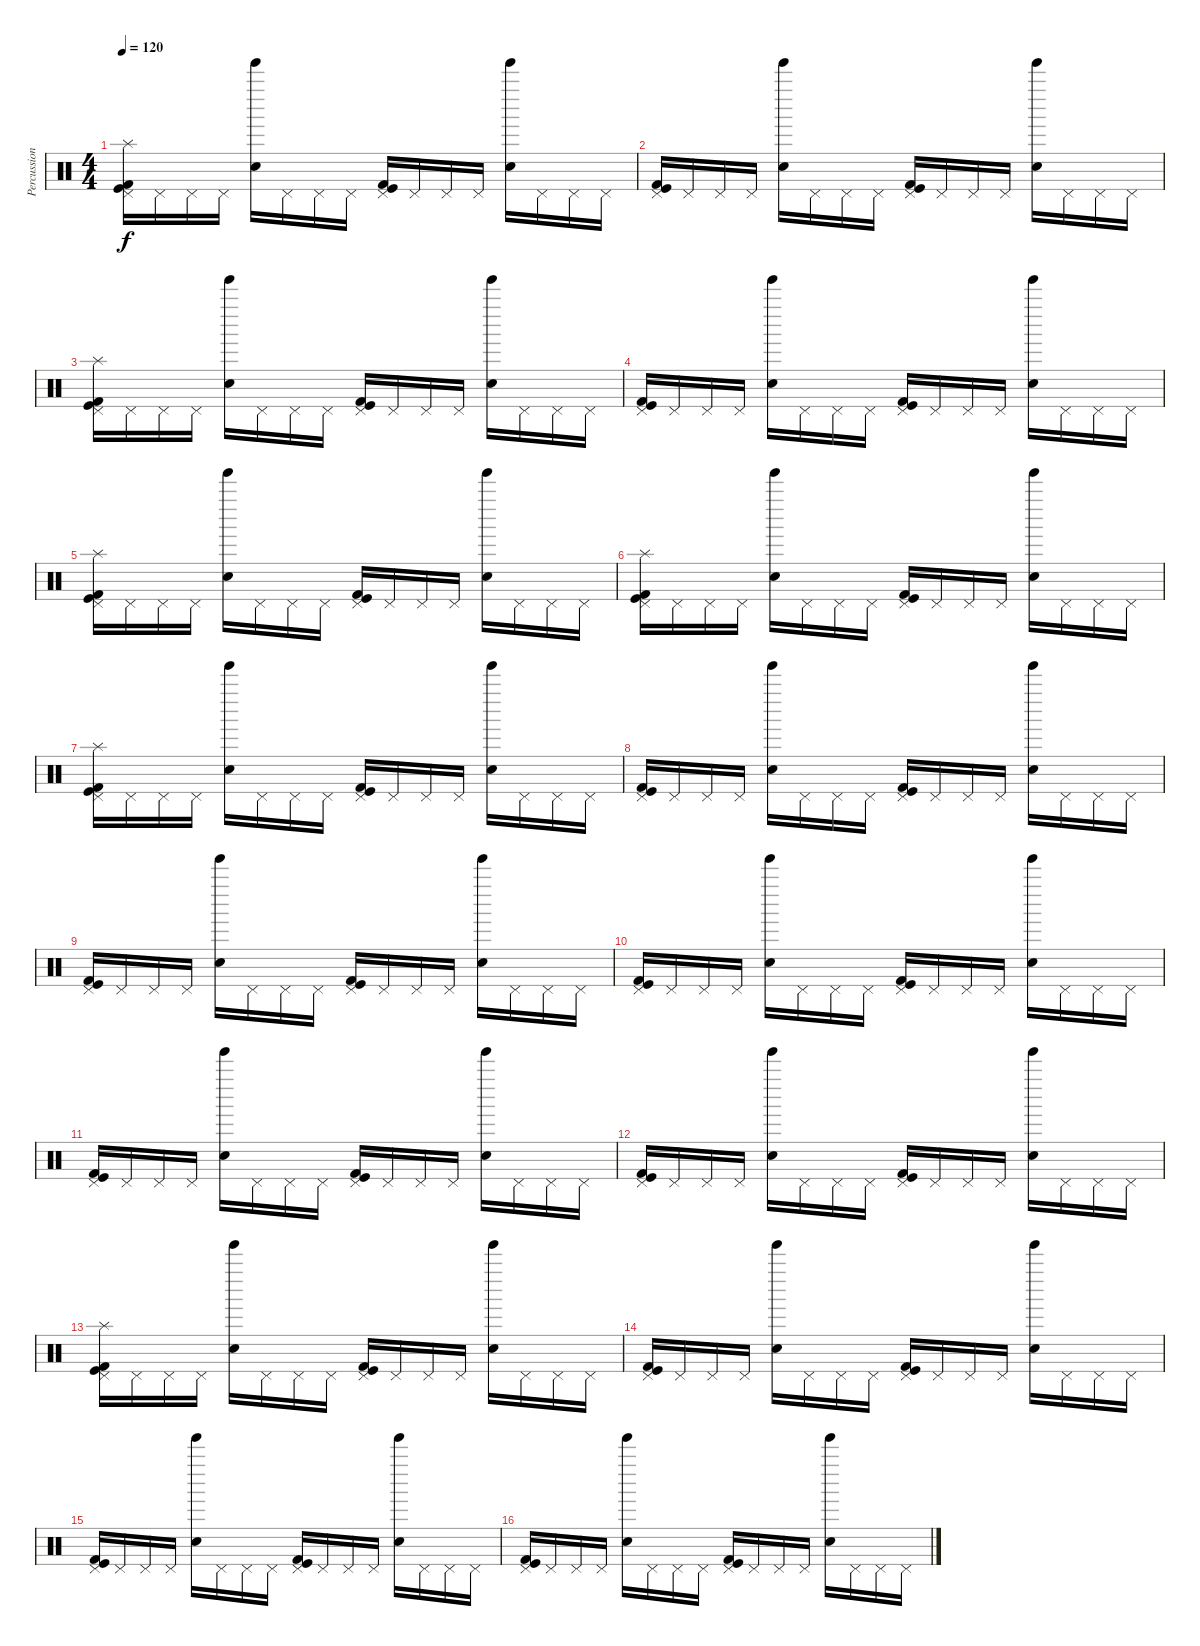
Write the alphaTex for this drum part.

\track ("Percussion" "Percussion") {instrument percussion}
\staff {score}
\articulation defaults
\ts (4 4)
\tempo 120
\clef neutral
\ks c
("Splash (hit)" "Pedal Hi-Hat (hit)" "Kick (hit)" "Kick (hit) 2").16{dy f} "Pedal Hi-Hat (hit)".16 "Pedal Hi-Hat (hit)".16 "Pedal Hi-Hat (hit)".16 ("Tinkle Bell (hit)" "Snare (hit) 2").16 "Pedal Hi-Hat (hit)".16 "Pedal Hi-Hat (hit)".16 "Pedal Hi-Hat (hit)".16 ("Pedal Hi-Hat (hit)" "Kick (hit)" "Kick (hit) 2").16 "Pedal Hi-Hat (hit)".16 "Pedal Hi-Hat (hit)".16 "Pedal Hi-Hat (hit)".16 ("Tinkle Bell (hit)" "Snare (hit) 2").16 "Pedal Hi-Hat (hit)".16 "Pedal Hi-Hat (hit)".16 "Pedal Hi-Hat (hit)".16 |
("Pedal Hi-Hat (hit)" "Kick (hit)" "Kick (hit) 2").16 "Pedal Hi-Hat (hit)".16 "Pedal Hi-Hat (hit)".16 "Pedal Hi-Hat (hit)".16 ("Tinkle Bell (hit)" "Snare (hit) 2").16 "Pedal Hi-Hat (hit)".16 "Pedal Hi-Hat (hit)".16 "Pedal Hi-Hat (hit)".16 ("Pedal Hi-Hat (hit)" "Kick (hit)" "Kick (hit) 2").16 "Pedal Hi-Hat (hit)".16 "Pedal Hi-Hat (hit)".16 "Pedal Hi-Hat (hit)".16 ("Tinkle Bell (hit)" "Snare (hit) 2").16 "Pedal Hi-Hat (hit)".16 "Pedal Hi-Hat (hit)".16 "Pedal Hi-Hat (hit)".16 |
("Splash (hit)" "Pedal Hi-Hat (hit)" "Kick (hit)" "Kick (hit) 2").16 "Pedal Hi-Hat (hit)".16 "Pedal Hi-Hat (hit)".16 "Pedal Hi-Hat (hit)".16 ("Tinkle Bell (hit)" "Snare (hit) 2").16 "Pedal Hi-Hat (hit)".16 "Pedal Hi-Hat (hit)".16 "Pedal Hi-Hat (hit)".16 ("Pedal Hi-Hat (hit)" "Kick (hit)" "Kick (hit) 2").16 "Pedal Hi-Hat (hit)".16 "Pedal Hi-Hat (hit)".16 "Pedal Hi-Hat (hit)".16 ("Tinkle Bell (hit)" "Snare (hit) 2").16 "Pedal Hi-Hat (hit)".16 "Pedal Hi-Hat (hit)".16 "Pedal Hi-Hat (hit)".16 |
("Pedal Hi-Hat (hit)" "Kick (hit)" "Kick (hit) 2").16 "Pedal Hi-Hat (hit)".16 "Pedal Hi-Hat (hit)".16 "Pedal Hi-Hat (hit)".16 ("Tinkle Bell (hit)" "Snare (hit) 2").16 "Pedal Hi-Hat (hit)".16 "Pedal Hi-Hat (hit)".16 "Pedal Hi-Hat (hit)".16 ("Pedal Hi-Hat (hit)" "Kick (hit)" "Kick (hit) 2").16 "Pedal Hi-Hat (hit)".16 "Pedal Hi-Hat (hit)".16 "Pedal Hi-Hat (hit)".16 ("Tinkle Bell (hit)" "Snare (hit) 2").16 "Pedal Hi-Hat (hit)".16 "Pedal Hi-Hat (hit)".16 "Pedal Hi-Hat (hit)".16 |
("Splash (hit)" "Pedal Hi-Hat (hit)" "Kick (hit)" "Kick (hit) 2").16 "Pedal Hi-Hat (hit)".16 "Pedal Hi-Hat (hit)".16 "Pedal Hi-Hat (hit)".16 ("Tinkle Bell (hit)" "Snare (hit) 2").16 "Pedal Hi-Hat (hit)".16 "Pedal Hi-Hat (hit)".16 "Pedal Hi-Hat (hit)".16 ("Pedal Hi-Hat (hit)" "Kick (hit)" "Kick (hit) 2").16 "Pedal Hi-Hat (hit)".16 "Pedal Hi-Hat (hit)".16 "Pedal Hi-Hat (hit)".16 ("Tinkle Bell (hit)" "Snare (hit) 2").16 "Pedal Hi-Hat (hit)".16 "Pedal Hi-Hat (hit)".16 "Pedal Hi-Hat (hit)".16 |
("Splash (hit)" "Pedal Hi-Hat (hit)" "Kick (hit)" "Kick (hit) 2").16 "Pedal Hi-Hat (hit)".16 "Pedal Hi-Hat (hit)".16 "Pedal Hi-Hat (hit)".16 ("Tinkle Bell (hit)" "Snare (hit) 2").16 "Pedal Hi-Hat (hit)".16 "Pedal Hi-Hat (hit)".16 "Pedal Hi-Hat (hit)".16 ("Pedal Hi-Hat (hit)" "Kick (hit)" "Kick (hit) 2").16 "Pedal Hi-Hat (hit)".16 "Pedal Hi-Hat (hit)".16 "Pedal Hi-Hat (hit)".16 ("Tinkle Bell (hit)" "Snare (hit) 2").16 "Pedal Hi-Hat (hit)".16 "Pedal Hi-Hat (hit)".16 "Pedal Hi-Hat (hit)".16 |
("Splash (hit)" "Pedal Hi-Hat (hit)" "Kick (hit)" "Kick (hit) 2").16 "Pedal Hi-Hat (hit)".16 "Pedal Hi-Hat (hit)".16 "Pedal Hi-Hat (hit)".16 ("Tinkle Bell (hit)" "Snare (hit) 2").16 "Pedal Hi-Hat (hit)".16 "Pedal Hi-Hat (hit)".16 "Pedal Hi-Hat (hit)".16 ("Pedal Hi-Hat (hit)" "Kick (hit)" "Kick (hit) 2").16 "Pedal Hi-Hat (hit)".16 "Pedal Hi-Hat (hit)".16 "Pedal Hi-Hat (hit)".16 ("Tinkle Bell (hit)" "Snare (hit) 2").16 "Pedal Hi-Hat (hit)".16 "Pedal Hi-Hat (hit)".16 "Pedal Hi-Hat (hit)".16 |
("Pedal Hi-Hat (hit)" "Kick (hit)" "Kick (hit) 2").16 "Pedal Hi-Hat (hit)".16 "Pedal Hi-Hat (hit)".16 "Pedal Hi-Hat (hit)".16 ("Tinkle Bell (hit)" "Snare (hit) 2").16 "Pedal Hi-Hat (hit)".16 "Pedal Hi-Hat (hit)".16 "Pedal Hi-Hat (hit)".16 ("Pedal Hi-Hat (hit)" "Kick (hit)" "Kick (hit) 2").16 "Pedal Hi-Hat (hit)".16 "Pedal Hi-Hat (hit)".16 "Pedal Hi-Hat (hit)".16 ("Tinkle Bell (hit)" "Snare (hit) 2").16 "Pedal Hi-Hat (hit)".16 "Pedal Hi-Hat (hit)".16 "Pedal Hi-Hat (hit)".16 |
("Pedal Hi-Hat (hit)" "Kick (hit)" "Kick (hit) 2").16 "Pedal Hi-Hat (hit)".16 "Pedal Hi-Hat (hit)".16 "Pedal Hi-Hat (hit)".16 ("Tinkle Bell (hit)" "Snare (hit) 2").16 "Pedal Hi-Hat (hit)".16 "Pedal Hi-Hat (hit)".16 "Pedal Hi-Hat (hit)".16 ("Pedal Hi-Hat (hit)" "Kick (hit)" "Kick (hit) 2").16 "Pedal Hi-Hat (hit)".16 "Pedal Hi-Hat (hit)".16 "Pedal Hi-Hat (hit)".16 ("Tinkle Bell (hit)" "Snare (hit) 2").16 "Pedal Hi-Hat (hit)".16 "Pedal Hi-Hat (hit)".16 "Pedal Hi-Hat (hit)".16 |
("Pedal Hi-Hat (hit)" "Kick (hit)" "Kick (hit) 2").16 "Pedal Hi-Hat (hit)".16 "Pedal Hi-Hat (hit)".16 "Pedal Hi-Hat (hit)".16 ("Tinkle Bell (hit)" "Snare (hit) 2").16 "Pedal Hi-Hat (hit)".16 "Pedal Hi-Hat (hit)".16 "Pedal Hi-Hat (hit)".16 ("Pedal Hi-Hat (hit)" "Kick (hit)" "Kick (hit) 2").16 "Pedal Hi-Hat (hit)".16 "Pedal Hi-Hat (hit)".16 "Pedal Hi-Hat (hit)".16 ("Tinkle Bell (hit)" "Snare (hit) 2").16 "Pedal Hi-Hat (hit)".16 "Pedal Hi-Hat (hit)".16 "Pedal Hi-Hat (hit)".16 |
("Pedal Hi-Hat (hit)" "Kick (hit)" "Kick (hit) 2").16 "Pedal Hi-Hat (hit)".16 "Pedal Hi-Hat (hit)".16 "Pedal Hi-Hat (hit)".16 ("Tinkle Bell (hit)" "Snare (hit) 2").16 "Pedal Hi-Hat (hit)".16 "Pedal Hi-Hat (hit)".16 "Pedal Hi-Hat (hit)".16 ("Pedal Hi-Hat (hit)" "Kick (hit)" "Kick (hit) 2").16 "Pedal Hi-Hat (hit)".16 "Pedal Hi-Hat (hit)".16 "Pedal Hi-Hat (hit)".16 ("Tinkle Bell (hit)" "Snare (hit) 2").16 "Pedal Hi-Hat (hit)".16 "Pedal Hi-Hat (hit)".16 "Pedal Hi-Hat (hit)".16 |
("Pedal Hi-Hat (hit)" "Kick (hit)" "Kick (hit) 2").16 "Pedal Hi-Hat (hit)".16 "Pedal Hi-Hat (hit)".16 "Pedal Hi-Hat (hit)".16 ("Tinkle Bell (hit)" "Snare (hit) 2").16 "Pedal Hi-Hat (hit)".16 "Pedal Hi-Hat (hit)".16 "Pedal Hi-Hat (hit)".16 ("Pedal Hi-Hat (hit)" "Kick (hit)" "Kick (hit) 2").16 "Pedal Hi-Hat (hit)".16 "Pedal Hi-Hat (hit)".16 "Pedal Hi-Hat (hit)".16 ("Tinkle Bell (hit)" "Snare (hit) 2").16 "Pedal Hi-Hat (hit)".16 "Pedal Hi-Hat (hit)".16 "Pedal Hi-Hat (hit)".16 |
("Splash (hit)" "Pedal Hi-Hat (hit)" "Kick (hit)" "Kick (hit) 2").16 "Pedal Hi-Hat (hit)".16 "Pedal Hi-Hat (hit)".16 "Pedal Hi-Hat (hit)".16 ("Tinkle Bell (hit)" "Snare (hit) 2").16 "Pedal Hi-Hat (hit)".16 "Pedal Hi-Hat (hit)".16 "Pedal Hi-Hat (hit)".16 ("Pedal Hi-Hat (hit)" "Kick (hit)" "Kick (hit) 2").16 "Pedal Hi-Hat (hit)".16 "Pedal Hi-Hat (hit)".16 "Pedal Hi-Hat (hit)".16 ("Tinkle Bell (hit)" "Snare (hit) 2").16 "Pedal Hi-Hat (hit)".16 "Pedal Hi-Hat (hit)".16 "Pedal Hi-Hat (hit)".16 |
("Pedal Hi-Hat (hit)" "Kick (hit)" "Kick (hit) 2").16 "Pedal Hi-Hat (hit)".16 "Pedal Hi-Hat (hit)".16 "Pedal Hi-Hat (hit)".16 ("Tinkle Bell (hit)" "Snare (hit) 2").16 "Pedal Hi-Hat (hit)".16 "Pedal Hi-Hat (hit)".16 "Pedal Hi-Hat (hit)".16 ("Pedal Hi-Hat (hit)" "Kick (hit)" "Kick (hit) 2").16 "Pedal Hi-Hat (hit)".16 "Pedal Hi-Hat (hit)".16 "Pedal Hi-Hat (hit)".16 ("Tinkle Bell (hit)" "Snare (hit) 2").16 "Pedal Hi-Hat (hit)".16 "Pedal Hi-Hat (hit)".16 "Pedal Hi-Hat (hit)".16 |
("Pedal Hi-Hat (hit)" "Kick (hit)" "Kick (hit) 2").16 "Pedal Hi-Hat (hit)".16 "Pedal Hi-Hat (hit)".16 "Pedal Hi-Hat (hit)".16 ("Tinkle Bell (hit)" "Snare (hit) 2").16 "Pedal Hi-Hat (hit)".16 "Pedal Hi-Hat (hit)".16 "Pedal Hi-Hat (hit)".16 ("Pedal Hi-Hat (hit)" "Kick (hit)" "Kick (hit) 2").16 "Pedal Hi-Hat (hit)".16 "Pedal Hi-Hat (hit)".16 "Pedal Hi-Hat (hit)".16 ("Tinkle Bell (hit)" "Snare (hit) 2").16 "Pedal Hi-Hat (hit)".16 "Pedal Hi-Hat (hit)".16 "Pedal Hi-Hat (hit)".16 |
("Pedal Hi-Hat (hit)" "Kick (hit)" "Kick (hit) 2").16 "Pedal Hi-Hat (hit)".16 "Pedal Hi-Hat (hit)".16 "Pedal Hi-Hat (hit)".16 ("Tinkle Bell (hit)" "Snare (hit) 2").16 "Pedal Hi-Hat (hit)".16 "Pedal Hi-Hat (hit)".16 "Pedal Hi-Hat (hit)".16 ("Pedal Hi-Hat (hit)" "Kick (hit)" "Kick (hit) 2").16 "Pedal Hi-Hat (hit)".16 "Pedal Hi-Hat (hit)".16 "Pedal Hi-Hat (hit)".16 ("Tinkle Bell (hit)" "Snare (hit) 2").16 "Pedal Hi-Hat (hit)".16 "Pedal Hi-Hat (hit)".16 "Pedal Hi-Hat (hit)".16
